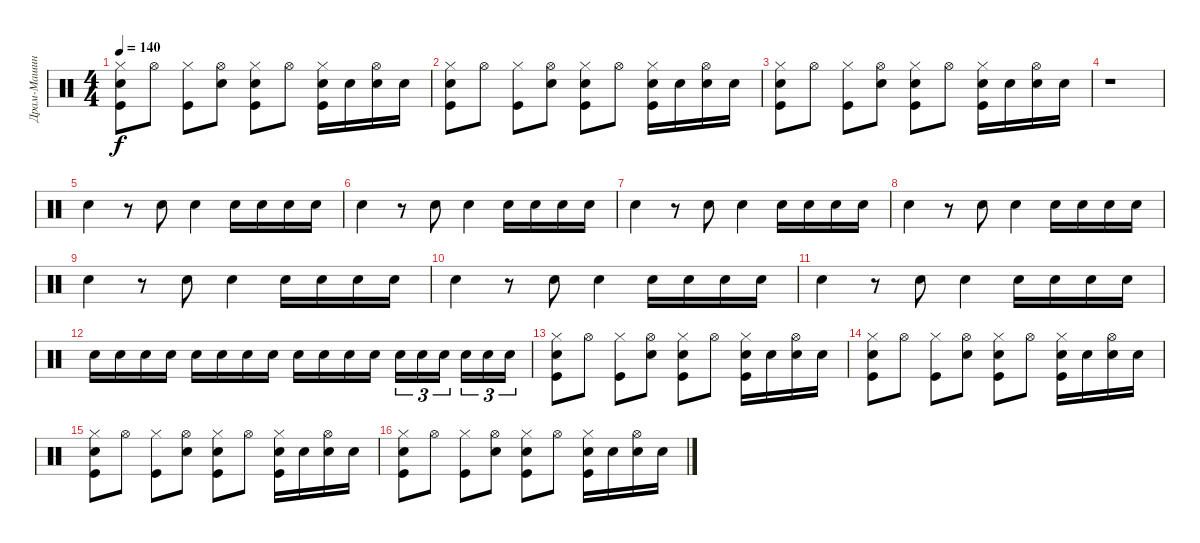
\track ("Драм-Машина" "Драм-Машин") {instrument percussion}
\staff {score}
\articulation defaults
\ts (4 4)
\tempo 140
\clef neutral
\ks c
("Snare (hit) 2" "Hi-Hat (closed)" "Kick (hit)").8{dy f} "Hi-Hat (open)".8 ("Hi-Hat (closed)" "Kick (hit)").8 ("Snare (hit) 2" "Hi-Hat (open)").8 ("Snare (hit) 2" "Hi-Hat (closed)" "Kick (hit)").8 "Hi-Hat (open)".8 ("Snare (hit) 2" "Hi-Hat (closed)" "Kick (hit)").16 "Snare (hit) 2".16 ("Snare (hit) 2" "Hi-Hat (open)").16 "Snare (hit) 2".16 |
("Snare (hit) 2" "Hi-Hat (closed)" "Kick (hit)").8 "Hi-Hat (open)".8 ("Hi-Hat (closed)" "Kick (hit)").8 ("Snare (hit) 2" "Hi-Hat (open)").8 ("Snare (hit) 2" "Hi-Hat (closed)" "Kick (hit)").8 "Hi-Hat (open)".8 ("Snare (hit) 2" "Hi-Hat (closed)" "Kick (hit)").16 "Snare (hit) 2".16 ("Snare (hit) 2" "Hi-Hat (open)").16 "Snare (hit) 2".16 |
("Snare (hit) 2" "Hi-Hat (closed)" "Kick (hit)").8 "Hi-Hat (open)".8 ("Hi-Hat (closed)" "Kick (hit)").8 ("Snare (hit) 2" "Hi-Hat (open)").8 ("Snare (hit) 2" "Hi-Hat (closed)" "Kick (hit)").8 "Hi-Hat (open)".8 ("Snare (hit) 2" "Hi-Hat (closed)" "Kick (hit)").16 "Snare (hit) 2".16 ("Snare (hit) 2" "Hi-Hat (open)").16 "Snare (hit) 2".16 |
r.1 |
"Snare (hit) 2".4 r.8 "Snare (hit) 2".8 "Snare (hit) 2".4 "Snare (hit) 2".16 "Snare (hit) 2".16 "Snare (hit) 2".16 "Snare (hit) 2".16 |
"Snare (hit) 2".4 r.8 "Snare (hit) 2".8 "Snare (hit) 2".4 "Snare (hit) 2".16 "Snare (hit) 2".16 "Snare (hit) 2".16 "Snare (hit) 2".16 |
"Snare (hit) 2".4 r.8 "Snare (hit) 2".8 "Snare (hit) 2".4 "Snare (hit) 2".16 "Snare (hit) 2".16 "Snare (hit) 2".16 "Snare (hit) 2".16 |
"Snare (hit) 2".4 r.8 "Snare (hit) 2".8 "Snare (hit) 2".4 "Snare (hit) 2".16 "Snare (hit) 2".16 "Snare (hit) 2".16 "Snare (hit) 2".16 |
"Snare (hit) 2".4 r.8 "Snare (hit) 2".8 "Snare (hit) 2".4 "Snare (hit) 2".16 "Snare (hit) 2".16 "Snare (hit) 2".16 "Snare (hit) 2".16 |
"Snare (hit) 2".4 r.8 "Snare (hit) 2".8 "Snare (hit) 2".4 "Snare (hit) 2".16 "Snare (hit) 2".16 "Snare (hit) 2".16 "Snare (hit) 2".16 |
"Snare (hit) 2".4 r.8 "Snare (hit) 2".8 "Snare (hit) 2".4 "Snare (hit) 2".16 "Snare (hit) 2".16 "Snare (hit) 2".16 "Snare (hit) 2".16 |
"Snare (hit) 2".16 "Snare (hit) 2".16 "Snare (hit) 2".16 "Snare (hit) 2".16 "Snare (hit) 2".16 "Snare (hit) 2".16 "Snare (hit) 2".16 "Snare (hit) 2".16 "Snare (hit) 2".16 "Snare (hit) 2".16 "Snare (hit) 2".16 "Snare (hit) 2".16 "Snare (hit) 2".16{tu (3 2)} "Snare (hit) 2".16{tu (3 2)} "Snare (hit) 2".16{tu (3 2) beam splitsecondary} "Snare (hit) 2".16{tu (3 2)} "Electric Snare (hit)".16{tu (3 2)} "Electric Snare (hit)".16{tu (3 2)} |
("Snare (hit) 2" "Hi-Hat (closed)" "Kick (hit)").8 "Hi-Hat (open)".8 ("Hi-Hat (closed)" "Kick (hit)").8 ("Snare (hit) 2" "Hi-Hat (open)").8 ("Snare (hit) 2" "Hi-Hat (closed)" "Kick (hit)").8 "Hi-Hat (open)".8 ("Snare (hit) 2" "Hi-Hat (closed)" "Kick (hit)").16 "Snare (hit) 2".16 ("Snare (hit) 2" "Hi-Hat (open)").16 "Snare (hit) 2".16 |
("Snare (hit) 2" "Hi-Hat (closed)" "Kick (hit)").8 "Hi-Hat (open)".8 ("Hi-Hat (closed)" "Kick (hit)").8 ("Snare (hit) 2" "Hi-Hat (open)").8 ("Snare (hit) 2" "Hi-Hat (closed)" "Kick (hit)").8 "Hi-Hat (open)".8 ("Snare (hit) 2" "Hi-Hat (closed)" "Kick (hit)").16 "Snare (hit) 2".16 ("Snare (hit) 2" "Hi-Hat (open)").16 "Snare (hit) 2".16 |
("Snare (hit) 2" "Hi-Hat (closed)" "Kick (hit)").8 "Hi-Hat (open)".8 ("Hi-Hat (closed)" "Kick (hit)").8 ("Snare (hit) 2" "Hi-Hat (open)").8 ("Snare (hit) 2" "Hi-Hat (closed)" "Kick (hit)").8 "Hi-Hat (open)".8 ("Snare (hit) 2" "Hi-Hat (closed)" "Kick (hit)").16 "Snare (hit) 2".16 ("Snare (hit) 2" "Hi-Hat (open)").16 "Snare (hit) 2".16 |
("Snare (hit) 2" "Hi-Hat (closed)" "Kick (hit)").8 "Hi-Hat (open)".8 ("Hi-Hat (closed)" "Kick (hit)").8 ("Snare (hit) 2" "Hi-Hat (open)").8 ("Snare (hit) 2" "Hi-Hat (closed)" "Kick (hit)").8 "Hi-Hat (open)".8 ("Snare (hit) 2" "Hi-Hat (closed)" "Kick (hit)").16 "Snare (hit) 2".16 ("Snare (hit) 2" "Hi-Hat (open)").16 "Snare (hit) 2".16
